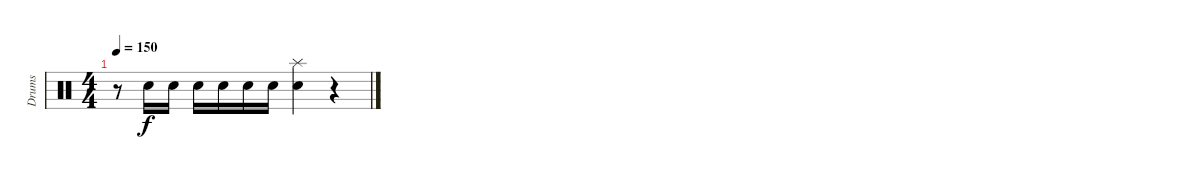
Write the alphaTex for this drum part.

\track ("Drums" "Drums") {instrument percussion}
\staff {score}
\articulation defaults
\ts (4 4)
\tempo 150
\clef neutral
\ks c
r.8{dy f} "Electric Snare (hit)".16 "Electric Snare (hit)".16 "Electric Snare (hit)".16 "Electric Snare (hit)".16 "Electric Snare (hit)".16 "Electric Snare (hit)".16 ("Splash (hit)" "Electric Snare (hit)").4 r.4
